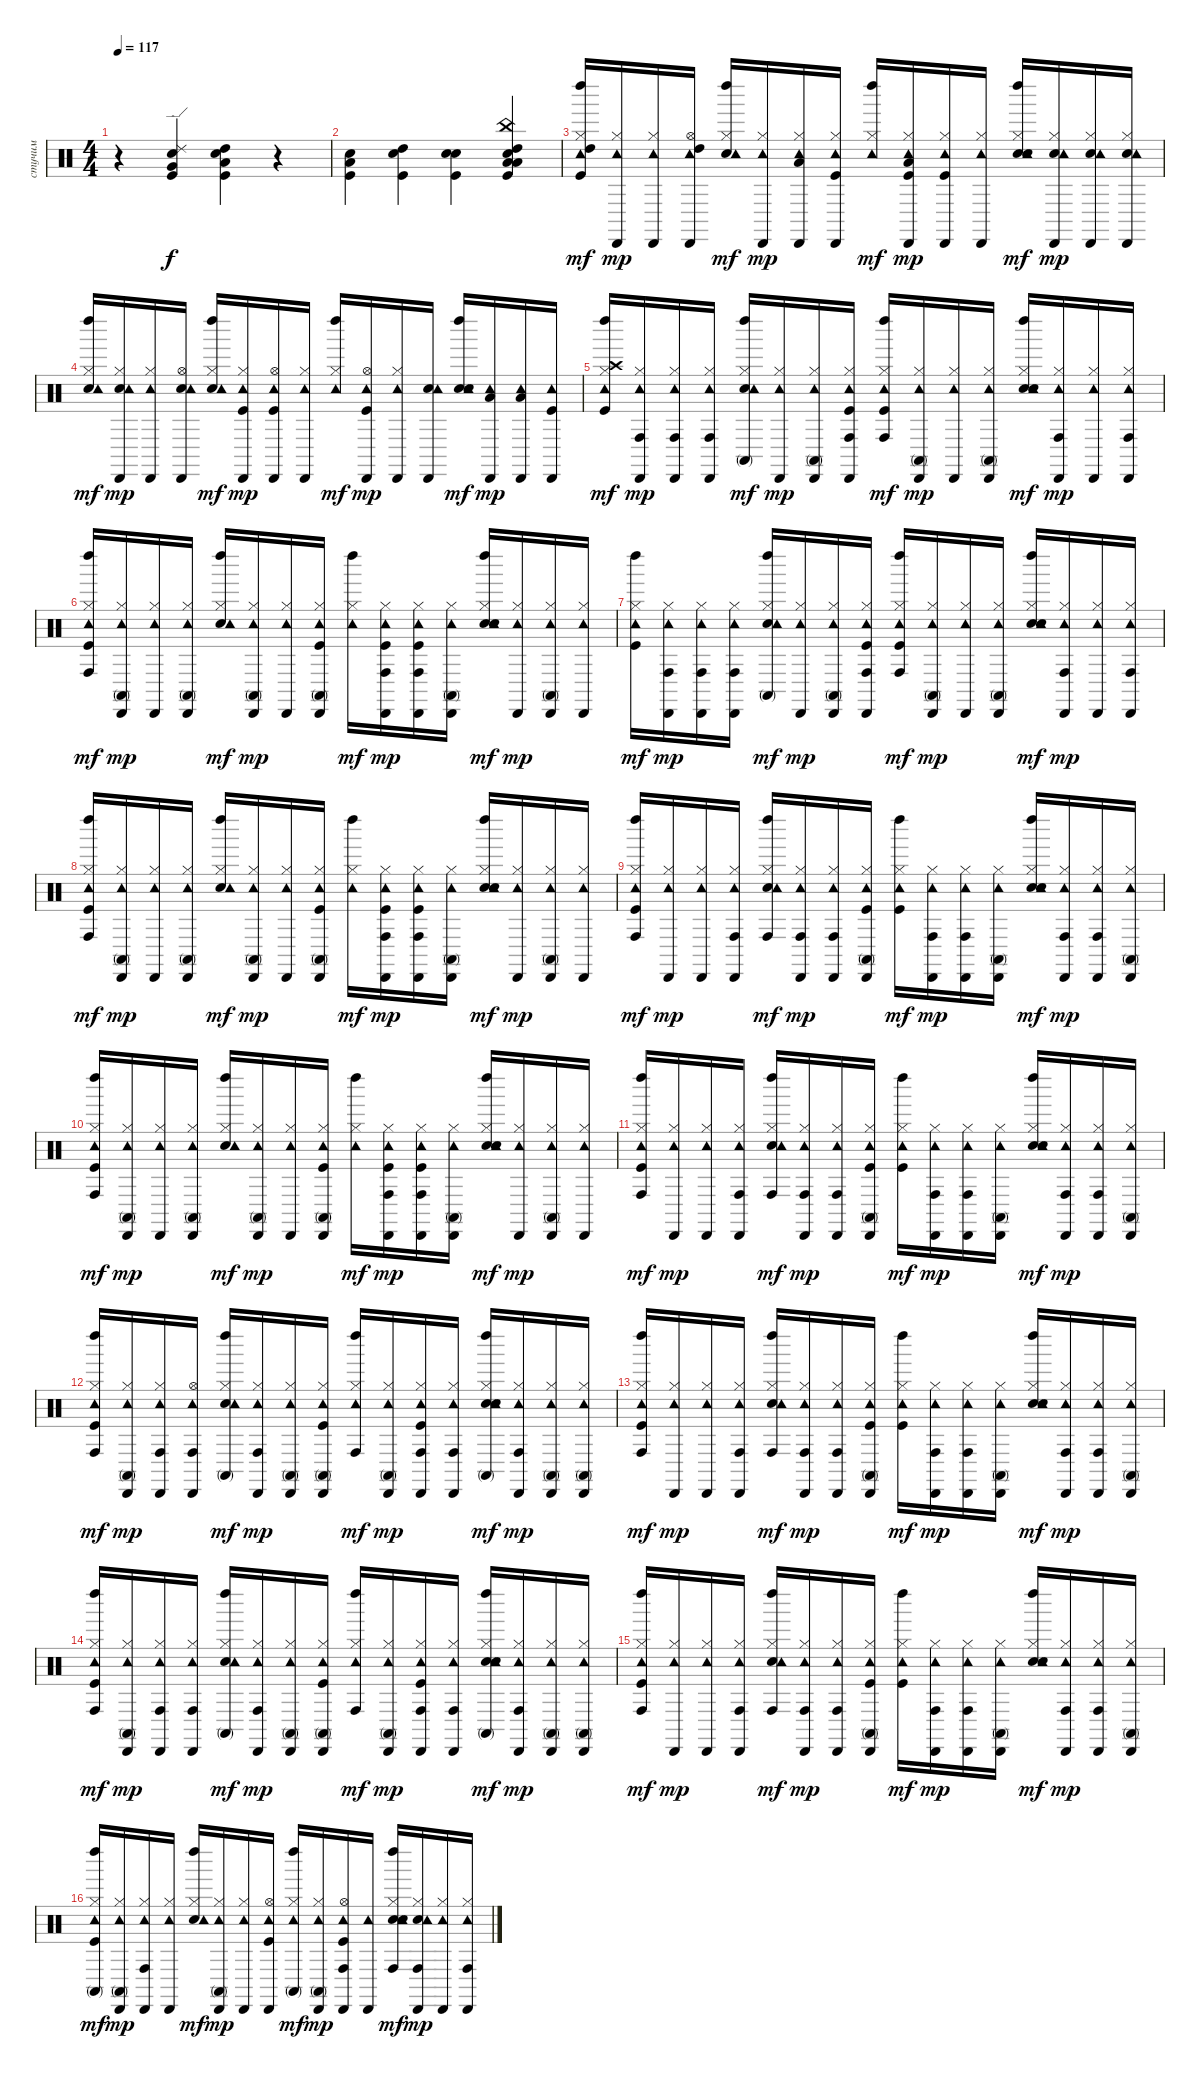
\track ("стучим" "стучим") {instrument percussion}
\staff {score}
\articulation defaults
\ts (4 4)
\tempo 117
\clef neutral
\ks c
r.4{dy f} ("Ride (edge) 2" "Very Low Tom (hit)" "Electric Snare (hit)" "Kick (hit)").4 ("High Tom (hit)" "Low Tom (hit)" "Electric Snare (hit)" "Kick (hit)").4 r.4 |
("Low Tom (hit)" "Electric Snare (hit)" "Kick (hit)").4 ("High Tom (hit)" "Electric Snare (hit)" "Kick (hit)").4 ("Electric Snare (hit)" "Snare (hit) 2" "Kick (hit)").4{balance 0} ("China (hit)" "High Tom (hit)" "Low Tom (hit)" "Low Floor Tom (hit)" "Snare (hit) 2" "Kick (hit)").4{balance 16} |
("Kick (hit)" "Hi-Hat (closed)" "High Tom (hit)" "Tambourine (hit)" "Left Maraca (hit)").16{dy mf balance 8} ("Hi-Hat (closed)" "Tambourine (hit)" "Cabasa (hit)").16{dy mp} ("Hi-Hat (closed)" "Tambourine (hit)" "Cabasa (hit)").16 ("Hi-Hat (open)" "High Tom (hit)" "Tambourine (hit)" "Cabasa (hit)").16 ("Snare (hit) 2" "Hi-Hat (closed)" "Tambourine (hit)" "Left Maraca (hit)").16{dy mf} ("Hi-Hat (closed)" "Tambourine (hit)" "Cabasa (hit)").16{dy mp} ("Hi-Hat (closed)" "Low Tom (hit)" "Tambourine (hit)" "Cabasa (hit)").16 ("Kick (hit)" "Hi-Hat (closed)" "Tambourine (hit)" "Cabasa (hit)").16 ("Hi-Hat (closed)" "Tambourine (hit)" "Left Maraca (hit)").16{dy mf} ("Kick (hit)" "Hi-Hat (closed)" "Low Floor Tom (hit)" "Tambourine (hit)" "Cabasa (hit)").16{dy mp} ("Kick (hit)" "Hi-Hat (closed)" "Tambourine (hit)" "Cabasa (hit)").16 ("Hi-Hat (closed)" "Tambourine (hit)" "Cabasa (hit)").16 ("Snare (hit) 2" "Hi-Hat (closed)" "Tambourine (hit)" "Hand Clap (hit)" "Left Maraca (hit)").16{dy mf} ("Snare (hit) 2" "Hi-Hat (closed)" "Tambourine (hit)" "Cabasa (hit)").16{dy mp} ("Snare (hit) 2" "Hi-Hat (closed)" "Tambourine (hit)" "Cabasa (hit)").16 ("Snare (hit) 2" "Hi-Hat (closed)" "Tambourine (hit)" "Cabasa (hit)").16 |
("Snare (hit) 2" "Hi-Hat (closed)" "Tambourine (hit)" "Left Maraca (hit)").16{dy mf} ("Snare (hit) 2" "Hi-Hat (closed)" "Tambourine (hit)" "Cabasa (hit)").16{dy mp} ("Hi-Hat (closed)" "Tambourine (hit)" "Cabasa (hit)").16 ("Snare (hit) 2" "Hi-Hat (open)" "Tambourine (hit)" "Cabasa (hit)").16 ("Snare (hit) 2" "Hi-Hat (closed)" "Tambourine (hit)" "Left Maraca (hit)").16{dy mf} ("Kick (hit)" "Hi-Hat (closed)" "Tambourine (hit)" "Cabasa (hit)").16{dy mp} ("Kick (hit)" "Hi-Hat (open)" "Tambourine (hit)" "Cabasa (hit)").16 ("Hi-Hat (closed)" "Tambourine (hit)" "Cabasa (hit)").16 ("Hi-Hat (closed)" "Tambourine (hit)" "Left Maraca (hit)").16{dy mf} ("Kick (hit)" "Hi-Hat (open)" "Tambourine (hit)" "Cabasa (hit)").16{dy mp} ("Hi-Hat (closed)" "Tambourine (hit)" "Cabasa (hit)").16 ("Snare (hit) 2" "Tambourine (hit)" "Cabasa (hit)").16 ("Snare (hit) 2" "Tambourine (hit)" "Hand Clap (hit)" "Left Maraca (hit)").16{dy mf} ("Low Floor Tom (hit)" "Tambourine (hit)" "Cabasa (hit)").16{dy mp} ("Low Floor Tom (hit)" "Tambourine (hit)" "Cabasa (hit)").16 ("Kick (hit)" "Tambourine (hit)" "Cabasa (hit)").16 |
("Kick (hit)" "Hi-Hat (closed)" "Crash high (hit)" "Tambourine (hit)" "Left Maraca (hit)").16{dy mf} ("Hi-Hat (closed)" "Conga high (hit)" "Tambourine (hit)" "Cabasa (hit)").16{dy mp} ("Hi-Hat (closed)" "Conga high (hit)" "Tambourine (hit)" "Cabasa (hit)").16 ("Hi-Hat (closed)" "Conga high (hit)" "Tambourine (hit)" "Cabasa (hit)").16 ("Snare (hit) 2" "Hi-Hat (closed)" "Conga high (mute)" "Tambourine (hit)" "Left Maraca (hit)").16{dy mf} ("Hi-Hat (closed)" "Tambourine (hit)" "Cabasa (hit)").16{dy mp} ("Hi-Hat (closed)" "Conga high (mute)" "Tambourine (hit)" "Cabasa (hit)").16 ("Kick (hit)" "Hi-Hat (closed)" "Conga high (hit)" "Tambourine (hit)" "Cabasa (hit)").16 ("Kick (hit)" "Hi-Hat (closed)" "Conga high (hit)" "Tambourine (hit)" "Left Maraca (hit)").16{dy mf} ("Hi-Hat (closed)" "Conga high (mute)" "Tambourine (hit)" "Cabasa (hit)").16{dy mp} ("Hi-Hat (closed)" "Tambourine (hit)" "Cabasa (hit)").16 ("Hi-Hat (closed)" "Conga high (mute)" "Tambourine (hit)" "Cabasa (hit)").16 ("Snare (hit) 2" "Hi-Hat (closed)" "Tambourine (hit)" "Hand Clap (hit)" "Left Maraca (hit)").16{dy mf} ("Hi-Hat (closed)" "Conga high (hit)" "Tambourine (hit)" "Cabasa (hit)").16{dy mp} ("Hi-Hat (closed)" "Tambourine (hit)" "Cabasa (hit)").16 ("Hi-Hat (closed)" "Conga high (hit)" "Tambourine (hit)" "Cabasa (hit)").16 |
("Kick (hit)" "Hi-Hat (closed)" "Conga high (hit)" "Tambourine (hit)" "Left Maraca (hit)").16{dy mf} ("Hi-Hat (closed)" "Conga high (mute)" "Tambourine (hit)" "Cabasa (hit)").16{dy mp} ("Hi-Hat (closed)" "Tambourine (hit)" "Cabasa (hit)").16 ("Hi-Hat (closed)" "Conga high (mute)" "Tambourine (hit)" "Cabasa (hit)").16 ("Snare (hit) 2" "Hi-Hat (closed)" "Tambourine (hit)" "Left Maraca (hit)").16{dy mf} ("Hi-Hat (closed)" "Conga high (mute)" "Tambourine (hit)" "Cabasa (hit)").16{dy mp} ("Hi-Hat (closed)" "Tambourine (hit)" "Cabasa (hit)").16 ("Kick (hit)" "Hi-Hat (closed)" "Conga high (mute)" "Tambourine (hit)" "Cabasa (hit)").16 ("Hi-Hat (closed)" "Tambourine (hit)" "Left Maraca (hit)").16{dy mf} ("Kick (hit)" "Hi-Hat (closed)" "Conga high (hit)" "Tambourine (hit)" "Cabasa (hit)").16{dy mp} ("Kick (hit)" "Hi-Hat (closed)" "Conga high (hit)" "Tambourine (hit)" "Cabasa (hit)").16 ("Hi-Hat (closed)" "Conga high (mute)" "Tambourine (hit)" "Cabasa (hit)").16 ("Snare (hit) 2" "Hi-Hat (closed)" "Tambourine (hit)" "Hand Clap (hit)" "Left Maraca (hit)").16{dy mf} ("Hi-Hat (closed)" "Tambourine (hit)" "Cabasa (hit)").16{dy mp} ("Hi-Hat (closed)" "Conga high (mute)" "Tambourine (hit)" "Cabasa (hit)").16 ("Hi-Hat (closed)" "Tambourine (hit)" "Cabasa (hit)").16 |
("Kick (hit)" "Hi-Hat (closed)" "Tambourine (hit)" "Left Maraca (hit)").16{dy mf} ("Hi-Hat (closed)" "Conga high (hit)" "Tambourine (hit)" "Cabasa (hit)").16{dy mp} ("Hi-Hat (closed)" "Conga high (hit)" "Tambourine (hit)" "Cabasa (hit)").16 ("Hi-Hat (closed)" "Conga high (hit)" "Tambourine (hit)" "Cabasa (hit)").16 ("Snare (hit) 2" "Hi-Hat (closed)" "Conga high (mute)" "Tambourine (hit)" "Left Maraca (hit)").16{dy mf} ("Hi-Hat (closed)" "Tambourine (hit)" "Cabasa (hit)").16{dy mp} ("Hi-Hat (closed)" "Conga high (mute)" "Tambourine (hit)" "Cabasa (hit)").16 ("Kick (hit)" "Hi-Hat (closed)" "Conga high (hit)" "Tambourine (hit)" "Cabasa (hit)").16 ("Kick (hit)" "Hi-Hat (closed)" "Conga high (hit)" "Tambourine (hit)" "Left Maraca (hit)").16{dy mf} ("Hi-Hat (closed)" "Conga high (mute)" "Tambourine (hit)" "Cabasa (hit)").16{dy mp} ("Hi-Hat (closed)" "Tambourine (hit)" "Cabasa (hit)").16 ("Hi-Hat (closed)" "Conga high (mute)" "Tambourine (hit)" "Cabasa (hit)").16 ("Snare (hit) 2" "Hi-Hat (closed)" "Tambourine (hit)" "Hand Clap (hit)" "Left Maraca (hit)").16{dy mf} ("Hi-Hat (closed)" "Conga high (hit)" "Tambourine (hit)" "Cabasa (hit)").16{dy mp} ("Hi-Hat (closed)" "Tambourine (hit)" "Cabasa (hit)").16 ("Hi-Hat (closed)" "Conga high (hit)" "Tambourine (hit)" "Cabasa (hit)").16 |
("Kick (hit)" "Hi-Hat (closed)" "Conga high (hit)" "Tambourine (hit)" "Left Maraca (hit)").16{dy mf} ("Hi-Hat (closed)" "Conga high (mute)" "Tambourine (hit)" "Cabasa (hit)").16{dy mp} ("Hi-Hat (closed)" "Tambourine (hit)" "Cabasa (hit)").16 ("Hi-Hat (closed)" "Conga high (mute)" "Tambourine (hit)" "Cabasa (hit)").16 ("Snare (hit) 2" "Hi-Hat (closed)" "Tambourine (hit)" "Left Maraca (hit)").16{dy mf} ("Hi-Hat (closed)" "Conga high (mute)" "Tambourine (hit)" "Cabasa (hit)").16{dy mp} ("Hi-Hat (closed)" "Tambourine (hit)" "Cabasa (hit)").16 ("Kick (hit)" "Hi-Hat (closed)" "Conga high (mute)" "Tambourine (hit)" "Cabasa (hit)").16 ("Hi-Hat (closed)" "Tambourine (hit)" "Left Maraca (hit)").16{dy mf} ("Kick (hit)" "Hi-Hat (closed)" "Conga high (hit)" "Tambourine (hit)" "Cabasa (hit)").16{dy mp} ("Kick (hit)" "Hi-Hat (closed)" "Conga high (hit)" "Tambourine (hit)" "Cabasa (hit)").16 ("Hi-Hat (closed)" "Conga high (mute)" "Tambourine (hit)" "Cabasa (hit)").16 ("Snare (hit) 2" "Hi-Hat (closed)" "Tambourine (hit)" "Hand Clap (hit)" "Left Maraca (hit)").16{dy mf} ("Hi-Hat (closed)" "Tambourine (hit)" "Cabasa (hit)").16{dy mp} ("Hi-Hat (closed)" "Conga high (mute)" "Tambourine (hit)" "Cabasa (hit)").16 ("Hi-Hat (closed)" "Tambourine (hit)" "Cabasa (hit)").16 |
("Kick (hit)" "Hi-Hat (closed)" "Conga high (hit)" "Tambourine (hit)" "Left Maraca (hit)").16{dy mf} ("Hi-Hat (closed)" "Tambourine (hit)" "Cabasa (hit)").16{dy mp} ("Hi-Hat (closed)" "Tambourine (hit)" "Cabasa (hit)").16 ("Hi-Hat (closed)" "Conga high (hit)" "Tambourine (hit)" "Cabasa (hit)").16 ("Snare (hit) 2" "Hi-Hat (closed)" "Conga high (hit)" "Tambourine (hit)" "Left Maraca (hit)").16{dy mf} ("Hi-Hat (closed)" "Conga high (hit)" "Tambourine (hit)" "Cabasa (hit)").16{dy mp} ("Hi-Hat (closed)" "Conga high (hit)" "Tambourine (hit)" "Cabasa (hit)").16 ("Kick (hit)" "Hi-Hat (closed)" "Conga high (mute)" "Tambourine (hit)" "Cabasa (hit)").16 ("Kick (hit)" "Hi-Hat (closed)" "Tambourine (hit)" "Left Maraca (hit)").16{dy mf} ("Hi-Hat (closed)" "Conga high (hit)" "Tambourine (hit)" "Cabasa (hit)").16{dy mp} ("Hi-Hat (closed)" "Conga high (hit)" "Tambourine (hit)" "Cabasa (hit)").16 ("Hi-Hat (closed)" "Conga high (mute)" "Tambourine (hit)" "Cabasa (hit)").16 ("Snare (hit) 2" "Hi-Hat (closed)" "Tambourine (hit)" "Hand Clap (hit)" "Left Maraca (hit)").16{dy mf} ("Hi-Hat (closed)" "Conga high (hit)" "Tambourine (hit)" "Cabasa (hit)").16{dy mp} ("Hi-Hat (closed)" "Conga high (hit)" "Tambourine (hit)" "Cabasa (hit)").16 ("Hi-Hat (closed)" "Conga high (mute)" "Tambourine (hit)" "Cabasa (hit)").16 |
("Kick (hit)" "Hi-Hat (closed)" "Conga high (hit)" "Tambourine (hit)" "Left Maraca (hit)").16{dy mf} ("Hi-Hat (closed)" "Conga high (mute)" "Tambourine (hit)" "Cabasa (hit)").16{dy mp} ("Hi-Hat (closed)" "Tambourine (hit)" "Cabasa (hit)").16 ("Hi-Hat (closed)" "Conga high (mute)" "Tambourine (hit)" "Cabasa (hit)").16 ("Snare (hit) 2" "Hi-Hat (closed)" "Tambourine (hit)" "Left Maraca (hit)").16{dy mf} ("Hi-Hat (closed)" "Conga high (mute)" "Tambourine (hit)" "Cabasa (hit)").16{dy mp} ("Hi-Hat (closed)" "Tambourine (hit)" "Cabasa (hit)").16 ("Kick (hit)" "Hi-Hat (closed)" "Conga high (mute)" "Tambourine (hit)" "Cabasa (hit)").16 ("Hi-Hat (closed)" "Tambourine (hit)" "Left Maraca (hit)").16{dy mf} ("Kick (hit)" "Hi-Hat (closed)" "Conga high (hit)" "Tambourine (hit)" "Cabasa (hit)").16{dy mp} ("Kick (hit)" "Hi-Hat (closed)" "Conga high (hit)" "Tambourine (hit)" "Cabasa (hit)").16 ("Hi-Hat (closed)" "Conga high (mute)" "Tambourine (hit)" "Cabasa (hit)").16 ("Snare (hit) 2" "Hi-Hat (closed)" "Tambourine (hit)" "Hand Clap (hit)" "Left Maraca (hit)").16{dy mf} ("Hi-Hat (closed)" "Tambourine (hit)" "Cabasa (hit)").16{dy mp} ("Hi-Hat (closed)" "Conga high (mute)" "Tambourine (hit)" "Cabasa (hit)").16 ("Hi-Hat (closed)" "Tambourine (hit)" "Cabasa (hit)").16 |
("Kick (hit)" "Hi-Hat (closed)" "Conga high (hit)" "Tambourine (hit)" "Left Maraca (hit)").16{dy mf} ("Hi-Hat (closed)" "Tambourine (hit)" "Cabasa (hit)").16{dy mp} ("Hi-Hat (closed)" "Tambourine (hit)" "Cabasa (hit)").16 ("Hi-Hat (closed)" "Conga high (hit)" "Tambourine (hit)" "Cabasa (hit)").16 ("Snare (hit) 2" "Hi-Hat (closed)" "Conga high (hit)" "Tambourine (hit)" "Left Maraca (hit)").16{dy mf} ("Hi-Hat (closed)" "Conga high (hit)" "Tambourine (hit)" "Cabasa (hit)").16{dy mp} ("Hi-Hat (closed)" "Conga high (hit)" "Tambourine (hit)" "Cabasa (hit)").16 ("Kick (hit)" "Hi-Hat (closed)" "Conga high (mute)" "Tambourine (hit)" "Cabasa (hit)").16 ("Kick (hit)" "Hi-Hat (closed)" "Tambourine (hit)" "Left Maraca (hit)").16{dy mf} ("Hi-Hat (closed)" "Conga high (hit)" "Tambourine (hit)" "Cabasa (hit)").16{dy mp} ("Hi-Hat (closed)" "Conga high (hit)" "Tambourine (hit)" "Cabasa (hit)").16 ("Hi-Hat (closed)" "Conga high (mute)" "Tambourine (hit)" "Cabasa (hit)").16 ("Snare (hit) 2" "Hi-Hat (closed)" "Tambourine (hit)" "Hand Clap (hit)" "Left Maraca (hit)").16{dy mf} ("Hi-Hat (closed)" "Conga high (hit)" "Tambourine (hit)" "Cabasa (hit)").16{dy mp} ("Hi-Hat (closed)" "Conga high (hit)" "Tambourine (hit)" "Cabasa (hit)").16 ("Hi-Hat (closed)" "Conga high (mute)" "Tambourine (hit)" "Cabasa (hit)").16 |
("Kick (hit)" "Hi-Hat (closed)" "Conga high (hit)" "Tambourine (hit)" "Left Maraca (hit)").16{dy mf} ("Hi-Hat (closed)" "Conga high (mute)" "Tambourine (hit)" "Cabasa (hit)").16{dy mp} ("Hi-Hat (closed)" "Conga high (hit)" "Tambourine (hit)" "Cabasa (hit)").16 ("Hi-Hat (open)" "Conga high (hit)" "Tambourine (hit)" "Cabasa (hit)").16 ("Snare (hit) 2" "Hi-Hat (closed)" "Conga high (mute)" "Tambourine (hit)" "Left Maraca (hit)").16{dy mf} ("Hi-Hat (closed)" "Conga high (hit)" "Tambourine (hit)" "Cabasa (hit)").16{dy mp} ("Hi-Hat (closed)" "Conga high (mute)" "Tambourine (hit)" "Cabasa (hit)").16 ("Kick (hit)" "Hi-Hat (closed)" "Conga high (mute)" "Tambourine (hit)" "Cabasa (hit)").16 ("Hi-Hat (closed)" "Conga high (hit)" "Tambourine (hit)" "Left Maraca (hit)").16{dy mf} ("Hi-Hat (closed)" "Conga high (mute)" "Tambourine (hit)" "Cabasa (hit)").16{dy mp} ("Kick (hit)" "Hi-Hat (closed)" "Conga high (hit)" "Tambourine (hit)" "Cabasa (hit)").16 ("Hi-Hat (closed)" "Conga high (hit)" "Tambourine (hit)" "Cabasa (hit)").16 ("Snare (hit) 2" "Hi-Hat (closed)" "Conga high (mute)" "Tambourine (hit)" "Hand Clap (hit)" "Left Maraca (hit)").16{dy mf} ("Hi-Hat (closed)" "Conga high (hit)" "Tambourine (hit)" "Cabasa (hit)").16{dy mp} ("Hi-Hat (closed)" "Conga high (mute)" "Tambourine (hit)" "Cabasa (hit)").16 ("Hi-Hat (closed)" "Conga high (mute)" "Tambourine (hit)" "Cabasa (hit)").16 |
("Kick (hit)" "Hi-Hat (closed)" "Conga high (hit)" "Tambourine (hit)" "Left Maraca (hit)").16{dy mf} ("Hi-Hat (closed)" "Tambourine (hit)" "Cabasa (hit)").16{dy mp} ("Hi-Hat (closed)" "Tambourine (hit)" "Cabasa (hit)").16 ("Hi-Hat (closed)" "Conga high (hit)" "Tambourine (hit)" "Cabasa (hit)").16 ("Snare (hit) 2" "Hi-Hat (closed)" "Conga high (hit)" "Tambourine (hit)" "Left Maraca (hit)").16{dy mf} ("Hi-Hat (closed)" "Conga high (hit)" "Tambourine (hit)" "Cabasa (hit)").16{dy mp} ("Hi-Hat (closed)" "Conga high (hit)" "Tambourine (hit)" "Cabasa (hit)").16 ("Kick (hit)" "Hi-Hat (closed)" "Conga high (mute)" "Tambourine (hit)" "Cabasa (hit)").16 ("Kick (hit)" "Hi-Hat (closed)" "Tambourine (hit)" "Left Maraca (hit)").16{dy mf} ("Hi-Hat (closed)" "Conga high (hit)" "Tambourine (hit)" "Cabasa (hit)").16{dy mp} ("Hi-Hat (closed)" "Conga high (hit)" "Tambourine (hit)" "Cabasa (hit)").16 ("Hi-Hat (closed)" "Conga high (mute)" "Tambourine (hit)" "Cabasa (hit)").16 ("Snare (hit) 2" "Hi-Hat (closed)" "Tambourine (hit)" "Hand Clap (hit)" "Left Maraca (hit)").16{dy mf} ("Hi-Hat (closed)" "Conga high (hit)" "Tambourine (hit)" "Cabasa (hit)").16{dy mp} ("Hi-Hat (closed)" "Conga high (hit)" "Tambourine (hit)" "Cabasa (hit)").16 ("Hi-Hat (closed)" "Conga high (mute)" "Tambourine (hit)" "Cabasa (hit)").16 |
("Kick (hit)" "Hi-Hat (closed)" "Conga high (hit)" "Tambourine (hit)" "Left Maraca (hit)").16{dy mf} ("Hi-Hat (closed)" "Conga high (mute)" "Tambourine (hit)" "Cabasa (hit)").16{dy mp} ("Hi-Hat (closed)" "Conga high (hit)" "Tambourine (hit)" "Cabasa (hit)").16 ("Hi-Hat (closed)" "Conga high (hit)" "Tambourine (hit)" "Cabasa (hit)").16 ("Snare (hit) 2" "Hi-Hat (closed)" "Conga high (mute)" "Tambourine (hit)" "Left Maraca (hit)").16{dy mf} ("Hi-Hat (closed)" "Conga high (hit)" "Tambourine (hit)" "Cabasa (hit)").16{dy mp} ("Hi-Hat (closed)" "Conga high (mute)" "Tambourine (hit)" "Cabasa (hit)").16 ("Kick (hit)" "Hi-Hat (closed)" "Conga high (mute)" "Tambourine (hit)" "Cabasa (hit)").16 ("Hi-Hat (closed)" "Conga high (hit)" "Tambourine (hit)" "Left Maraca (hit)").16{dy mf} ("Hi-Hat (closed)" "Conga high (mute)" "Tambourine (hit)" "Cabasa (hit)").16{dy mp} ("Kick (hit)" "Hi-Hat (closed)" "Conga high (hit)" "Tambourine (hit)" "Cabasa (hit)").16 ("Hi-Hat (closed)" "Conga high (hit)" "Tambourine (hit)" "Cabasa (hit)").16 ("Snare (hit) 2" "Hi-Hat (closed)" "Conga high (mute)" "Tambourine (hit)" "Hand Clap (hit)" "Left Maraca (hit)").16{dy mf} ("Hi-Hat (closed)" "Conga high (hit)" "Tambourine (hit)" "Cabasa (hit)").16{dy mp} ("Hi-Hat (closed)" "Conga high (mute)" "Tambourine (hit)" "Cabasa (hit)").16 ("Hi-Hat (closed)" "Conga high (mute)" "Tambourine (hit)" "Cabasa (hit)").16 |
("Kick (hit)" "Hi-Hat (closed)" "Conga high (hit)" "Tambourine (hit)" "Left Maraca (hit)").16{dy mf} ("Hi-Hat (closed)" "Tambourine (hit)" "Cabasa (hit)").16{dy mp} ("Hi-Hat (closed)" "Tambourine (hit)" "Cabasa (hit)").16 ("Hi-Hat (closed)" "Conga high (hit)" "Tambourine (hit)" "Cabasa (hit)").16 ("Snare (hit) 2" "Hi-Hat (closed)" "Conga high (hit)" "Tambourine (hit)" "Left Maraca (hit)").16{dy mf} ("Hi-Hat (closed)" "Conga high (hit)" "Tambourine (hit)" "Cabasa (hit)").16{dy mp} ("Hi-Hat (closed)" "Conga high (hit)" "Tambourine (hit)" "Cabasa (hit)").16 ("Kick (hit)" "Hi-Hat (closed)" "Conga high (mute)" "Tambourine (hit)" "Cabasa (hit)").16 ("Kick (hit)" "Hi-Hat (closed)" "Tambourine (hit)" "Left Maraca (hit)").16{dy mf} ("Hi-Hat (closed)" "Conga high (hit)" "Tambourine (hit)" "Cabasa (hit)").16{dy mp} ("Hi-Hat (closed)" "Conga high (hit)" "Tambourine (hit)" "Cabasa (hit)").16 ("Hi-Hat (closed)" "Conga high (mute)" "Tambourine (hit)" "Cabasa (hit)").16 ("Snare (hit) 2" "Hi-Hat (closed)" "Tambourine (hit)" "Hand Clap (hit)" "Left Maraca (hit)").16{dy mf} ("Hi-Hat (closed)" "Conga high (hit)" "Tambourine (hit)" "Cabasa (hit)").16{dy mp} ("Hi-Hat (closed)" "Conga high (hit)" "Tambourine (hit)" "Cabasa (hit)").16 ("Hi-Hat (closed)" "Conga high (mute)" "Tambourine (hit)" "Cabasa (hit)").16 |
("Kick (hit)" "Hi-Hat (closed)" "Conga high (mute)" "Tambourine (hit)" "Left Maraca (hit)").16{dy mf} ("Hi-Hat (closed)" "Conga high (mute)" "Tambourine (hit)" "Cabasa (hit)").16{dy mp} ("Hi-Hat (closed)" "Conga high (hit)" "Tambourine (hit)" "Cabasa (hit)").16 ("Hi-Hat (closed)" "Tambourine (hit)" "Cabasa (hit)").16 ("Snare (hit) 2" "Hi-Hat (closed)" "Tambourine (hit)" "Left Maraca (hit)").16{dy mf} ("Hi-Hat (closed)" "Conga high (mute)" "Tambourine (hit)" "Cabasa (hit)").16{dy mp} ("Hi-Hat (closed)" "Tambourine (hit)" "Cabasa (hit)").16 ("Kick (hit)" "Hi-Hat (open)" "Tambourine (hit)" "Cabasa (hit)").16 ("Hi-Hat (closed)" "Conga high (mute)" "Tambourine (hit)" "Left Maraca (hit)").16{dy mf} ("Hi-Hat (closed)" "Conga high (mute)" "Tambourine (hit)" "Cabasa (hit)").16{dy mp} ("Kick (hit)" "Hi-Hat (open)" "Conga high (hit)" "Tambourine (hit)" "Cabasa (hit)").16 ("Tambourine (hit)" "Cabasa (hit)").16 ("Snare (hit) 2" "Hi-Hat (closed)" "Conga high (hit)" "Tambourine (hit)" "Hand Clap (hit)" "Left Maraca (hit)").16{dy mf} ("Snare (hit) 2" "Hi-Hat (closed)" "Conga high (hit)" "Tambourine (hit)" "Cabasa (hit)").16{dy mp} ("Hi-Hat (closed)" "Tambourine (hit)" "Cabasa (hit)").16 ("Hi-Hat (closed)" "Conga high (hit)" "Tambourine (hit)" "Cabasa (hit)").16
